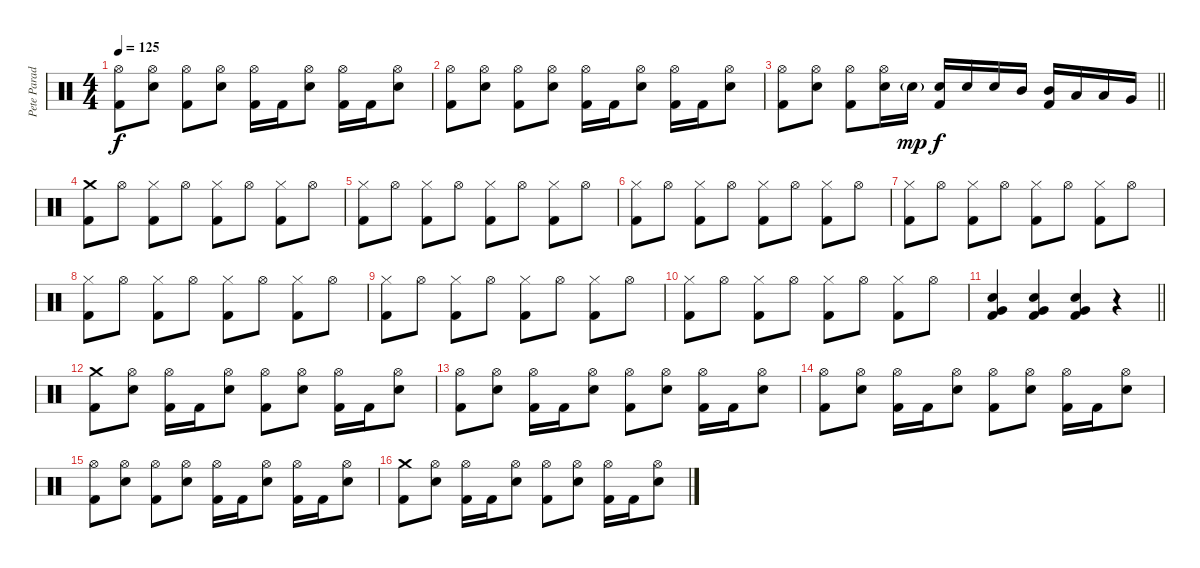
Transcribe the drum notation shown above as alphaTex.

\track ("Pete Parada - Drums" "Pete Parad") {instrument percussion}
\staff {score}
\articulation defaults
\ts (4 4)
\tempo 125
\clef neutral
\ks c
("Hi-Hat (open)" "Kick (hit) 2").8{dy f} ("Hi-Hat (open)" "Electric Snare (hit)").8 ("Hi-Hat (open)" "Kick (hit) 2").8 ("Hi-Hat (open)" "Electric Snare (hit)").8 ("Hi-Hat (open)" "Kick (hit) 2").16 "Kick (hit) 2".16 ("Hi-Hat (open)" "Electric Snare (hit)").8 ("Hi-Hat (open)" "Kick (hit) 2").16 "Kick (hit) 2".16 ("Hi-Hat (open)" "Electric Snare (hit)").8 |
("Hi-Hat (open)" "Kick (hit) 2").8 ("Hi-Hat (open)" "Electric Snare (hit)").8 ("Hi-Hat (open)" "Kick (hit) 2").8 ("Hi-Hat (open)" "Electric Snare (hit)").8 ("Hi-Hat (open)" "Kick (hit) 2").16 "Kick (hit) 2".16 ("Hi-Hat (open)" "Electric Snare (hit)").8 ("Hi-Hat (open)" "Kick (hit) 2").16 "Kick (hit) 2".16 ("Hi-Hat (open)" "Electric Snare (hit)").8 |
\barLineRight lightlight
("Hi-Hat (open)" "Kick (hit) 2").8 ("Hi-Hat (open)" "Electric Snare (hit)").8 ("Hi-Hat (open)" "Kick (hit) 2").8 ("Hi-Hat (open)" "Electric Snare (hit)").16 "Electric Snare (hit)"{g}.16{dy mp} ("Kick (hit) 2" "Electric Snare (hit)").16{dy f} "Electric Snare (hit)".16 "Electric Snare (hit)".16 "Mid Tom (hit)".16 ("Kick (hit) 2" "Mid Tom (hit)").16 "Low Tom (hit)".16 "Low Tom (hit)".16 "Very Low Tom (hit)".16 |
("Crash medium (hit)" "Kick (hit) 2").8 "Hi-Hat (open)".8 ("Hi-Hat (closed)" "Kick (hit) 2").8 "Hi-Hat (open)".8 ("Hi-Hat (closed)" "Kick (hit) 2").8 "Hi-Hat (open)".8 ("Hi-Hat (closed)" "Kick (hit) 2").8 "Hi-Hat (open)".8 |
("Hi-Hat (closed)" "Kick (hit) 2").8 "Hi-Hat (open)".8 ("Hi-Hat (closed)" "Kick (hit) 2").8 "Hi-Hat (open)".8 ("Hi-Hat (closed)" "Kick (hit) 2").8 "Hi-Hat (open)".8 ("Hi-Hat (closed)" "Kick (hit) 2").8 "Hi-Hat (open)".8 |
("Hi-Hat (closed)" "Kick (hit) 2").8 "Hi-Hat (open)".8 ("Hi-Hat (closed)" "Kick (hit) 2").8 "Hi-Hat (open)".8 ("Hi-Hat (closed)" "Kick (hit) 2").8 "Hi-Hat (open)".8 ("Hi-Hat (closed)" "Kick (hit) 2").8 "Hi-Hat (open)".8 |
("Hi-Hat (closed)" "Kick (hit) 2").8 "Hi-Hat (open)".8 ("Hi-Hat (closed)" "Kick (hit) 2").8 "Hi-Hat (open)".8 ("Hi-Hat (closed)" "Kick (hit) 2").8 "Hi-Hat (open)".8 ("Hi-Hat (closed)" "Kick (hit) 2").8 "Hi-Hat (open)".8 |
("Hi-Hat (closed)" "Kick (hit) 2").8 "Hi-Hat (open)".8 ("Hi-Hat (closed)" "Kick (hit) 2").8 "Hi-Hat (open)".8 ("Hi-Hat (closed)" "Kick (hit) 2").8 "Hi-Hat (open)".8 ("Hi-Hat (closed)" "Kick (hit) 2").8 "Hi-Hat (open)".8 |
("Hi-Hat (closed)" "Kick (hit) 2").8 "Hi-Hat (open)".8 ("Hi-Hat (closed)" "Kick (hit) 2").8 "Hi-Hat (open)".8 ("Hi-Hat (closed)" "Kick (hit) 2").8 "Hi-Hat (open)".8 ("Hi-Hat (closed)" "Kick (hit) 2").8 "Hi-Hat (open)".8 |
("Hi-Hat (closed)" "Kick (hit) 2").8 "Hi-Hat (open)".8 ("Hi-Hat (closed)" "Kick (hit) 2").8 "Hi-Hat (open)".8 ("Hi-Hat (closed)" "Kick (hit) 2").8 "Hi-Hat (open)".8 ("Hi-Hat (closed)" "Kick (hit) 2").8 "Hi-Hat (open)".8 |
\barLineRight lightlight
("Electric Snare (hit)" "Very Low Tom (hit)" "Kick (hit) 2").4 ("Electric Snare (hit)" "Very Low Tom (hit)" "Kick (hit) 2").4 ("Electric Snare (hit)" "Very Low Tom (hit)" "Kick (hit) 2").4 r.4 |
("Crash medium (hit)" "Kick (hit) 2").8 ("Hi-Hat (open)" "Electric Snare (hit)").8 ("Hi-Hat (open)" "Kick (hit) 2").16 "Kick (hit) 2".16 ("Hi-Hat (open)" "Electric Snare (hit)").8 ("Hi-Hat (open)" "Kick (hit) 2").8 ("Hi-Hat (open)" "Electric Snare (hit)").8 ("Hi-Hat (open)" "Kick (hit) 2").16 "Kick (hit) 2".16 ("Hi-Hat (open)" "Electric Snare (hit)").8 |
("Hi-Hat (open)" "Kick (hit) 2").8 ("Hi-Hat (open)" "Electric Snare (hit)").8 ("Hi-Hat (open)" "Kick (hit) 2").16 "Kick (hit) 2".16 ("Hi-Hat (open)" "Electric Snare (hit)").8 ("Hi-Hat (open)" "Kick (hit) 2").8 ("Hi-Hat (open)" "Electric Snare (hit)").8 ("Hi-Hat (open)" "Kick (hit) 2").16 "Kick (hit) 2".16 ("Hi-Hat (open)" "Electric Snare (hit)").8 |
("Hi-Hat (open)" "Kick (hit) 2").8 ("Hi-Hat (open)" "Electric Snare (hit)").8 ("Hi-Hat (open)" "Kick (hit) 2").16 "Kick (hit) 2".16 ("Hi-Hat (open)" "Electric Snare (hit)").8 ("Hi-Hat (open)" "Kick (hit) 2").8 ("Hi-Hat (open)" "Electric Snare (hit)").8 ("Hi-Hat (open)" "Kick (hit) 2").16 "Kick (hit) 2".16 ("Hi-Hat (open)" "Electric Snare (hit)").8 |
("Hi-Hat (open)" "Kick (hit) 2").8 ("Hi-Hat (open)" "Electric Snare (hit)").8 ("Hi-Hat (open)" "Kick (hit) 2").8 ("Hi-Hat (open)" "Electric Snare (hit)").8 ("Hi-Hat (open)" "Kick (hit) 2").16 "Kick (hit) 2".16 ("Hi-Hat (open)" "Electric Snare (hit)").8 ("Hi-Hat (open)" "Kick (hit) 2").16 "Kick (hit) 2".16 ("Hi-Hat (open)" "Electric Snare (hit)").8 |
("Crash medium (hit)" "Kick (hit) 2").8 ("Hi-Hat (open)" "Electric Snare (hit)").8 ("Hi-Hat (open)" "Kick (hit) 2").16 "Kick (hit) 2".16 ("Hi-Hat (open)" "Electric Snare (hit)").8 ("Hi-Hat (open)" "Kick (hit) 2").8 ("Hi-Hat (open)" "Electric Snare (hit)").8 ("Hi-Hat (open)" "Kick (hit) 2").16 "Kick (hit) 2".16 ("Hi-Hat (open)" "Electric Snare (hit)").8
